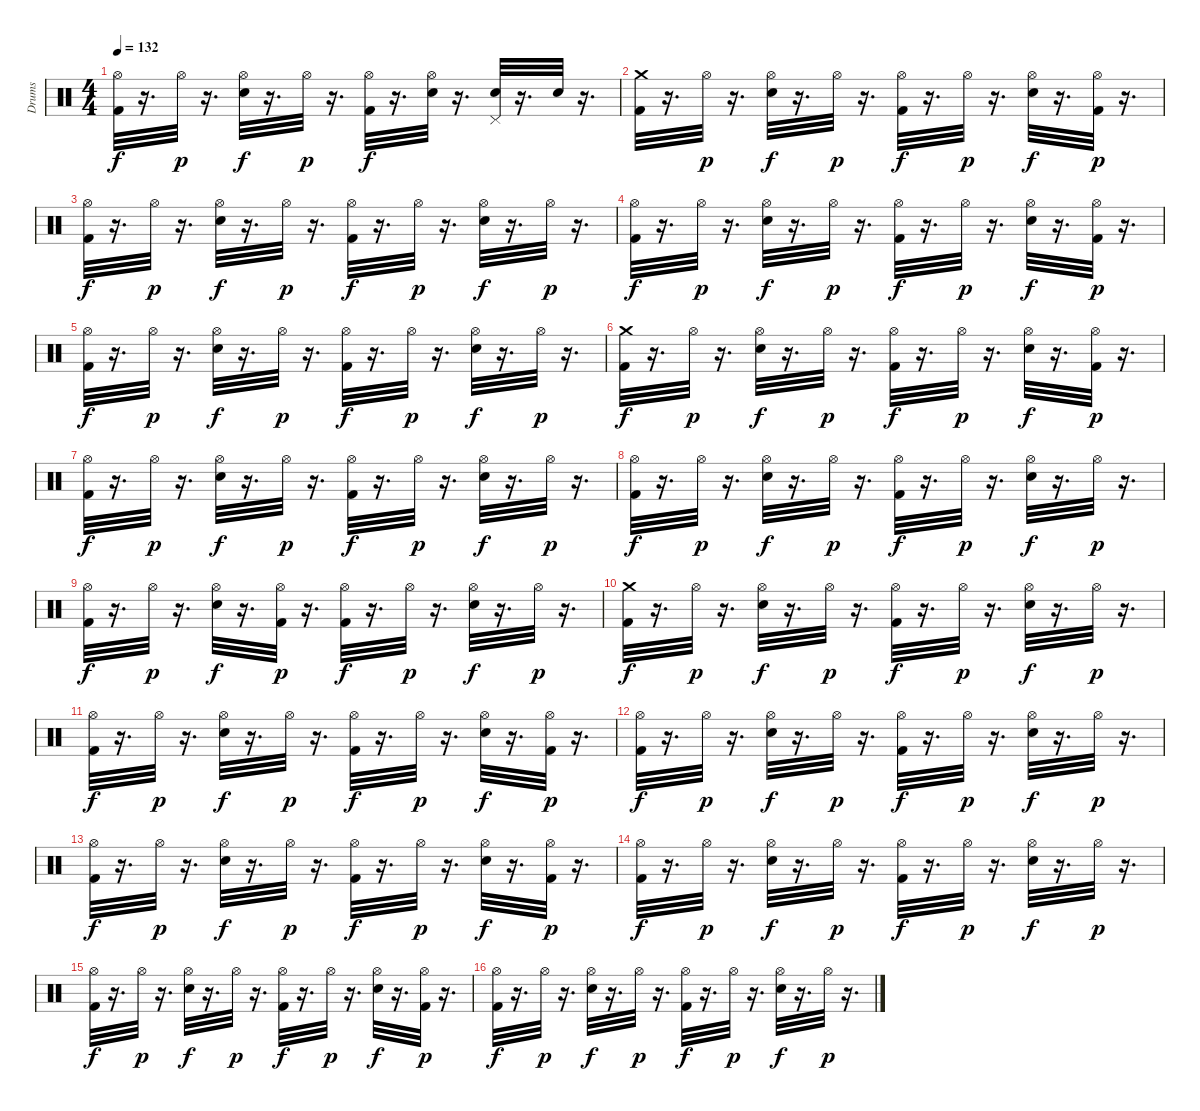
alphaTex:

\track ("Drums" "Drums") {instrument percussion}
\staff {score}
\articulation defaults
\ts (4 4)
\tempo 132
\clef neutral
\ks c
("Kick (hit) 2" "Hi-Hat (open)").32{dy f} r.16{d} "Hi-Hat (open)".32{dy p} r.16{d} ("Hi-Hat (open)" "Electric Snare (hit)").32{dy f} r.16{d} "Hi-Hat (open)".32{dy p} r.16{d} ("Hi-Hat (open)" "Kick (hit) 2").32{dy f} r.16{d} ("Hi-Hat (open)" "Electric Snare (hit)").32 r.16{d} ("Pedal Hi-Hat (hit)" "Electric Snare (hit)").32 r.16{d} "Electric Snare (hit)".32 r.16{d} |
("Kick (hit) 2" "Crash medium (hit)").32 r.16{d} "Hi-Hat (open)".32{dy p} r.16{d} ("Hi-Hat (open)" "Electric Snare (hit)").32{dy f} r.16{d} "Hi-Hat (open)".32{dy p} r.16{d} ("Kick (hit) 2" "Hi-Hat (open)").32{dy f} r.16{d} "Hi-Hat (open)".32{dy p} r.16{d} ("Hi-Hat (open)" "Electric Snare (hit)").32{dy f} r.16{d} ("Kick (hit) 2" "Hi-Hat (open)").32{dy p} r.16{d} |
("Hi-Hat (open)" "Kick (hit) 2").32{dy f} r.16{d} "Hi-Hat (open)".32{dy p} r.16{d} ("Hi-Hat (open)" "Electric Snare (hit)").32{dy f} r.16{d} "Hi-Hat (open)".32{dy p} r.16{d} ("Hi-Hat (open)" "Kick (hit) 2").32{dy f} r.16{d} "Hi-Hat (open)".32{dy p} r.16{d} ("Hi-Hat (open)" "Electric Snare (hit)").32{dy f} r.16{d} "Hi-Hat (open)".32{dy p} r.16{d} |
("Kick (hit) 2" "Hi-Hat (open)").32{dy f} r.16{d} "Hi-Hat (open)".32{dy p} r.16{d} ("Hi-Hat (open)" "Electric Snare (hit)").32{dy f} r.16{d} "Hi-Hat (open)".32{dy p} r.16{d} ("Hi-Hat (open)" "Kick (hit) 2").32{dy f} r.16{d} "Hi-Hat (open)".32{dy p} r.16{d} ("Hi-Hat (open)" "Electric Snare (hit)").32{dy f} r.16{d} ("Kick (hit) 2" "Hi-Hat (open)").32{dy p} r.16{d} |
("Hi-Hat (open)" "Kick (hit) 2").32{dy f} r.16{d} "Hi-Hat (open)".32{dy p} r.16{d} ("Electric Snare (hit)" "Hi-Hat (open)").32{dy f} r.16{d} "Hi-Hat (open)".32{dy p} r.16{d} ("Hi-Hat (open)" "Kick (hit) 2").32{dy f} r.16{d} "Hi-Hat (open)".32{dy p} r.16{d} ("Electric Snare (hit)" "Hi-Hat (open)").32{dy f} r.16{d} "Hi-Hat (open)".32{dy p} r.16{d} |
("Crash medium (hit)" "Kick (hit) 2").32{dy f} r.16{d} "Hi-Hat (open)".32{dy p} r.16{d} ("Hi-Hat (open)" "Electric Snare (hit)").32{dy f} r.16{d} "Hi-Hat (open)".32{dy p} r.16{d} ("Hi-Hat (open)" "Kick (hit) 2").32{dy f} r.16{d} "Hi-Hat (open)".32{dy p} r.16{d} ("Hi-Hat (open)" "Electric Snare (hit)").32{dy f} r.16{d} ("Kick (hit) 2" "Hi-Hat (open)").32{dy p} r.16{d} |
("Hi-Hat (open)" "Kick (hit) 2").32{dy f} r.16{d} "Hi-Hat (open)".32{dy p} r.16{d} ("Hi-Hat (open)" "Electric Snare (hit)").32{dy f} r.16{d} "Hi-Hat (open)".32{dy p} r.16{d} ("Kick (hit) 2" "Hi-Hat (open)").32{dy f} r.16{d} "Hi-Hat (open)".32{dy p} r.16{d} ("Hi-Hat (open)" "Electric Snare (hit)").32{dy f} r.16{d} "Hi-Hat (open)".32{dy p} r.16{d} |
("Hi-Hat (open)" "Kick (hit) 2").32{dy f} r.16{d} "Hi-Hat (open)".32{dy p} r.16{d} ("Hi-Hat (open)" "Electric Snare (hit)").32{dy f} r.16{d} "Hi-Hat (open)".32{dy p} r.16{d} ("Hi-Hat (open)" "Kick (hit) 2").32{dy f} r.16{d} "Hi-Hat (open)".32{dy p} r.16{d} ("Electric Snare (hit)" "Hi-Hat (open)").32{dy f} r.16{d} "Hi-Hat (open)".32{dy p} r.16{d} |
("Kick (hit) 2" "Hi-Hat (open)").32{dy f} r.16{d} "Hi-Hat (open)".32{dy p} r.16{d} ("Electric Snare (hit)" "Hi-Hat (open)").32{dy f} r.16{d} ("Hi-Hat (open)" "Kick (hit) 2").32{dy p} r.16{d} ("Hi-Hat (open)" "Kick (hit) 2").32{dy f} r.16{d} "Hi-Hat (open)".32{dy p} r.16{d} ("Electric Snare (hit)" "Hi-Hat (open)").32{dy f} r.16{d} "Hi-Hat (open)".32{dy p} r.16{d} |
("Crash medium (hit)" "Kick (hit) 2").32{dy f} r.16{d} "Hi-Hat (open)".32{dy p} r.16{d} ("Electric Snare (hit)" "Hi-Hat (open)").32{dy f} r.16{d} "Hi-Hat (open)".32{dy p} r.16{d} ("Hi-Hat (open)" "Kick (hit) 2").32{dy f} r.16{d} "Hi-Hat (open)".32{dy p} r.16{d} ("Hi-Hat (open)" "Electric Snare (hit)").32{dy f} r.16{d} "Hi-Hat (open)".32{dy p} r.16{d} |
("Kick (hit) 2" "Hi-Hat (open)").32{dy f} r.16{d} "Hi-Hat (open)".32{dy p} r.16{d} ("Electric Snare (hit)" "Hi-Hat (open)").32{dy f} r.16{d} "Hi-Hat (open)".32{dy p} r.16{d} ("Hi-Hat (open)" "Kick (hit) 2").32{dy f} r.16{d} "Hi-Hat (open)".32{dy p} r.16{d} ("Electric Snare (hit)" "Hi-Hat (open)").32{dy f} r.16{d} ("Kick (hit) 2" "Hi-Hat (open)").32{dy p} r.16{d} |
("Hi-Hat (open)" "Kick (hit) 2").32{dy f} r.16{d} "Hi-Hat (open)".32{dy p} r.16{d} ("Hi-Hat (open)" "Electric Snare (hit)").32{dy f} r.16{d} "Hi-Hat (open)".32{dy p} r.16{d} ("Hi-Hat (open)" "Kick (hit) 2").32{dy f} r.16{d} "Hi-Hat (open)".32{dy p} r.16{d} ("Hi-Hat (open)" "Electric Snare (hit)").32{dy f} r.16{d} "Hi-Hat (open)".32{dy p} r.16{d} |
("Hi-Hat (open)" "Kick (hit) 2").32{dy f} r.16{d} "Hi-Hat (open)".32{dy p} r.16{d} ("Electric Snare (hit)" "Hi-Hat (open)").32{dy f} r.16{d} "Hi-Hat (open)".32{dy p} r.16{d} ("Kick (hit) 2" "Hi-Hat (open)").32{dy f} r.16{d} "Hi-Hat (open)".32{dy p} r.16{d} ("Hi-Hat (open)" "Electric Snare (hit)").32{dy f} r.16{d} ("Kick (hit) 2" "Hi-Hat (open)").32{dy p} r.16{d} |
("Hi-Hat (open)" "Kick (hit) 2").32{dy f} r.16{d} "Hi-Hat (open)".32{dy p} r.16{d} ("Electric Snare (hit)" "Hi-Hat (open)").32{dy f} r.16{d} "Hi-Hat (open)".32{dy p} r.16{d} ("Hi-Hat (open)" "Kick (hit) 2").32{dy f} r.16{d} "Hi-Hat (open)".32{dy p} r.16{d} ("Electric Snare (hit)" "Hi-Hat (open)").32{dy f} r.16{d} "Hi-Hat (open)".32{dy p} r.16{d} |
("Hi-Hat (open)" "Kick (hit) 2").32{dy f} r.16{d} "Hi-Hat (open)".32{dy p} r.16{d} ("Hi-Hat (open)" "Electric Snare (hit)").32{dy f} r.16{d} "Hi-Hat (open)".32{dy p} r.16{d} ("Hi-Hat (open)" "Kick (hit) 2").32{dy f} r.16{d} "Hi-Hat (open)".32{dy p} r.16{d} ("Hi-Hat (open)" "Electric Snare (hit)").32{dy f} r.16{d} ("Kick (hit) 2" "Hi-Hat (open)").32{dy p} r.16{d} |
("Hi-Hat (open)" "Kick (hit) 2").32{dy f} r.16{d} "Hi-Hat (open)".32{dy p} r.16{d} ("Hi-Hat (open)" "Electric Snare (hit)").32{dy f} r.16{d} "Hi-Hat (open)".32{dy p} r.16{d} ("Hi-Hat (open)" "Kick (hit) 2").32{dy f} r.16{d} "Hi-Hat (open)".32{dy p} r.16{d} ("Hi-Hat (open)" "Electric Snare (hit)").32{dy f} r.16{d} "Hi-Hat (open)".32{dy p} r.16{d}
